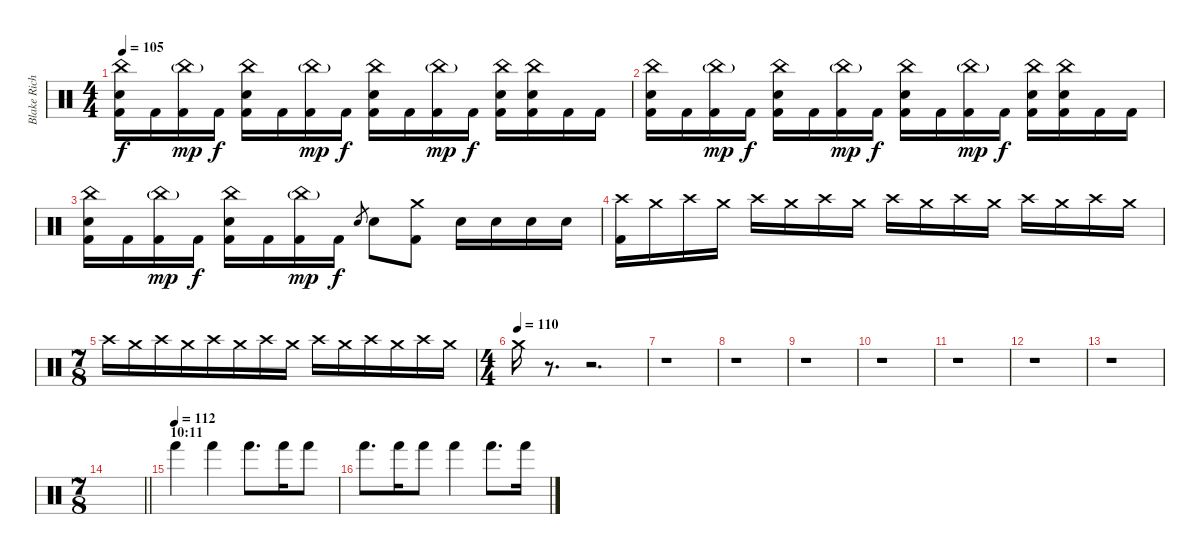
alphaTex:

\track ("Blake Richardson" "Blake Rich") {instrument percussion}
\staff {score}
\articulation defaults
\ts (4 4)
\tempo 105
\clef neutral
\ks c
("China (hit)" "Electric Snare (hit)" "Kick (hit) 2").16{dy f} "Kick (hit) 2".16 ("China (hit)"{g} "Kick (hit) 2").16{dy mp} "Kick (hit) 2".16{dy f} ("China (hit)" "Electric Snare (hit)" "Kick (hit) 2").16 "Kick (hit) 2".16 ("China (hit)"{g} "Kick (hit) 2").16{dy mp} "Kick (hit) 2".16{dy f} ("China (hit)" "Electric Snare (hit)" "Kick (hit) 2").16 "Kick (hit) 2".16 ("China (hit)"{g} "Kick (hit) 2").16{dy mp} "Kick (hit) 2".16{dy f} ("China (hit)" "Electric Snare (hit)" "Kick (hit) 2").16 ("China (hit)" "Electric Snare (hit)" "Kick (hit) 2").16 "Kick (hit) 2".16 "Kick (hit) 2".16 |
("China (hit)" "Electric Snare (hit)" "Kick (hit) 2").16 "Kick (hit) 2".16 ("China (hit)"{g} "Kick (hit) 2").16{dy mp} "Kick (hit) 2".16{dy f} ("China (hit)" "Electric Snare (hit)" "Kick (hit) 2").16 "Kick (hit) 2".16 ("China (hit)"{g} "Kick (hit) 2").16{dy mp} "Kick (hit) 2".16{dy f} ("China (hit)" "Electric Snare (hit)" "Kick (hit) 2").16 "Kick (hit) 2".16 ("China (hit)"{g} "Kick (hit) 2").16{dy mp} "Kick (hit) 2".16{dy f} ("China (hit)" "Electric Snare (hit)" "Kick (hit) 2").16 ("China (hit)" "Electric Snare (hit)" "Kick (hit) 2").16 "Kick (hit) 2".16 "Kick (hit) 2".16 |
("China (hit)" "Electric Snare (hit)" "Kick (hit) 2").16 "Kick (hit) 2".16 ("China (hit)"{g} "Kick (hit) 2").16{dy mp} "Kick (hit) 2".16{dy f} ("China (hit)" "Electric Snare (hit)" "Kick (hit) 2").16 "Kick (hit) 2".16 ("China (hit)"{g} "Kick (hit) 2").16{dy mp} "Kick (hit) 2".16{dy f} "Electric Snare (hit)".8{gr} "Electric Snare (hit)".8 ("Crash medium (hit)" "Kick (hit) 2").8 "Electric Snare (hit)".16 "Electric Snare (hit)".16 "Electric Snare (hit)".16 "Electric Snare (hit)".16 |
("Crash high (hit)" "Kick (hit) 2").16 "Crash medium (hit)".16{volume 3} "Crash high (hit)".16{volume 14} "Crash medium (hit)".16 "Crash high (hit)".16 "Crash medium (hit)".16 "Crash high (hit)".16 "Crash medium (hit)".16 "Crash high (hit)".16 "Crash medium (hit)".16 "Crash high (hit)".16 "Crash medium (hit)".16 "Crash high (hit)".16 "Crash medium (hit)".16 "Crash high (hit)".16 "Crash medium (hit)".16 |
\ts (7 8)
"Crash high (hit)".16 "Crash medium (hit)".16 "Crash high (hit)".16 "Crash medium (hit)".16 "Crash high (hit)".16 "Crash medium (hit)".16 "Crash high (hit)".16 "Crash medium (hit)".16 "Crash high (hit)".16 "Crash medium (hit)".16 "Crash high (hit)".16 "Crash medium (hit)".16 "Crash high (hit)".16 "Crash medium (hit)".16 |
\ts (4 4)
\tempo (110)
"Crash medium (hit)".16 r.8{d volume 0} r.2{d} |
r.1 |
r.1 |
r.1 |
r.1 |
r.1 |
r.1 |
r.1 |
\ts (7 8)
\barLineRight lightlight
|
\section ("" "10:11")
\tempo (112)
"Hand (hit)".4{volume 13} "Hand (hit)".4 "Hand (hit)".8{d} "Hand (hit)".16 "Hand (hit)".8 |
"Hand (hit)".8{d} "Hand (hit)".16 "Hand (hit)".8 "Hand (hit)".4 "Hand (hit)".8{d} "Hand (hit)".16
